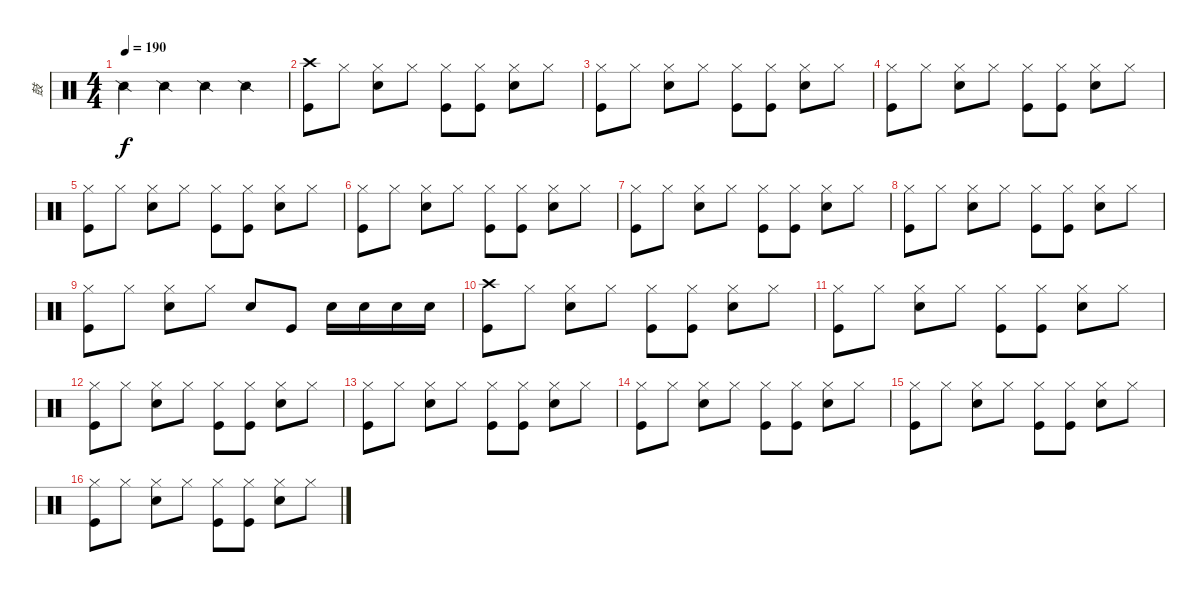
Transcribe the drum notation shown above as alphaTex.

\track ("鼓" "鼓") {instrument percussion}
\staff {score}
\articulation defaults
\ts (4 4)
\tempo 190
\clef neutral
\ks c "Snare (side stick) 2".4{dy f} "Snare (side stick) 2".4 "Snare (side stick) 2".4 "Snare (side stick) 2".4
|
("Crash high (hit)" "Kick (hit)").8 "Hi-Hat (closed)".8 ("Hi-Hat (closed)" "Snare (hit) 2").8 "Hi-Hat (closed)".8 ("Hi-Hat (closed)" "Kick (hit)").8 ("Hi-Hat (closed)" "Kick (hit)").8 ("Hi-Hat (closed)" "Snare (hit) 2").8 "Hi-Hat (closed)".8 |
("Hi-Hat (closed)" "Kick (hit)").8 "Hi-Hat (closed)".8 ("Hi-Hat (closed)" "Snare (hit) 2").8 "Hi-Hat (closed)".8 ("Hi-Hat (closed)" "Kick (hit)").8 ("Hi-Hat (closed)" "Kick (hit)").8 ("Hi-Hat (closed)" "Snare (hit) 2").8 "Hi-Hat (closed)".8 |
("Hi-Hat (closed)" "Kick (hit)").8 "Hi-Hat (closed)".8 ("Hi-Hat (closed)" "Snare (hit) 2").8 "Hi-Hat (closed)".8 ("Hi-Hat (closed)" "Kick (hit)").8 ("Hi-Hat (closed)" "Kick (hit)").8 ("Hi-Hat (closed)" "Snare (hit) 2").8 "Hi-Hat (closed)".8 |
("Hi-Hat (closed)" "Kick (hit)").8 "Hi-Hat (closed)".8 ("Hi-Hat (closed)" "Snare (hit) 2").8 "Hi-Hat (closed)".8 ("Hi-Hat (closed)" "Kick (hit)").8 ("Hi-Hat (closed)" "Kick (hit)").8 ("Hi-Hat (closed)" "Snare (hit) 2").8 "Hi-Hat (closed)".8 |
("Hi-Hat (closed)" "Kick (hit)").8 "Hi-Hat (closed)".8 ("Hi-Hat (closed)" "Snare (hit) 2").8 "Hi-Hat (closed)".8 ("Hi-Hat (closed)" "Kick (hit)").8 ("Hi-Hat (closed)" "Kick (hit)").8 ("Hi-Hat (closed)" "Snare (hit) 2").8 "Hi-Hat (closed)".8 |
("Hi-Hat (closed)" "Kick (hit)").8 "Hi-Hat (closed)".8 ("Hi-Hat (closed)" "Snare (hit) 2").8 "Hi-Hat (closed)".8 ("Hi-Hat (closed)" "Kick (hit)").8 ("Hi-Hat (closed)" "Kick (hit)").8 ("Hi-Hat (closed)" "Snare (hit) 2").8 "Hi-Hat (closed)".8 |
("Hi-Hat (closed)" "Kick (hit)").8 "Hi-Hat (closed)".8 ("Hi-Hat (closed)" "Snare (hit) 2").8 "Hi-Hat (closed)".8 ("Hi-Hat (closed)" "Kick (hit)").8 ("Hi-Hat (closed)" "Kick (hit)").8 ("Hi-Hat (closed)" "Snare (hit) 2").8 "Hi-Hat (closed)".8 |
("Hi-Hat (closed)" "Kick (hit)").8 "Hi-Hat (closed)".8 ("Hi-Hat (closed)" "Snare (hit) 2").8 "Hi-Hat (closed)".8 "Snare (hit) 2".8 "Kick (hit)".8 "Snare (hit) 2".16 "Snare (hit) 2".16 "Snare (hit) 2".16 "Snare (hit) 2".16 |
("Crash high (hit)" "Kick (hit)").8 "Hi-Hat (closed)".8 ("Hi-Hat (closed)" "Snare (hit) 2").8 "Hi-Hat (closed)".8 ("Hi-Hat (closed)" "Kick (hit)").8 ("Hi-Hat (closed)" "Kick (hit)").8 ("Hi-Hat (closed)" "Snare (hit) 2").8 "Hi-Hat (closed)".8 |
("Hi-Hat (closed)" "Kick (hit)").8 "Hi-Hat (closed)".8 ("Hi-Hat (closed)" "Snare (hit) 2").8 "Hi-Hat (closed)".8 ("Hi-Hat (closed)" "Kick (hit)").8 ("Hi-Hat (closed)" "Kick (hit)").8 ("Hi-Hat (closed)" "Snare (hit) 2").8 "Hi-Hat (closed)".8 |
("Hi-Hat (closed)" "Kick (hit)").8 "Hi-Hat (closed)".8 ("Hi-Hat (closed)" "Snare (hit) 2").8 "Hi-Hat (closed)".8 ("Hi-Hat (closed)" "Kick (hit)").8 ("Hi-Hat (closed)" "Kick (hit)").8 ("Hi-Hat (closed)" "Snare (hit) 2").8 "Hi-Hat (closed)".8 |
("Hi-Hat (closed)" "Kick (hit)").8 "Hi-Hat (closed)".8 ("Hi-Hat (closed)" "Snare (hit) 2").8 "Hi-Hat (closed)".8 ("Hi-Hat (closed)" "Kick (hit)").8 ("Hi-Hat (closed)" "Kick (hit)").8 ("Hi-Hat (closed)" "Snare (hit) 2").8 "Hi-Hat (closed)".8 |
("Hi-Hat (closed)" "Kick (hit)").8 "Hi-Hat (closed)".8 ("Hi-Hat (closed)" "Snare (hit) 2").8 "Hi-Hat (closed)".8 ("Hi-Hat (closed)" "Kick (hit)").8 ("Hi-Hat (closed)" "Kick (hit)").8 ("Hi-Hat (closed)" "Snare (hit) 2").8 "Hi-Hat (closed)".8 |
("Hi-Hat (closed)" "Kick (hit)").8 "Hi-Hat (closed)".8 ("Hi-Hat (closed)" "Snare (hit) 2").8 "Hi-Hat (closed)".8 ("Hi-Hat (closed)" "Kick (hit)").8 ("Hi-Hat (closed)" "Kick (hit)").8 ("Hi-Hat (closed)" "Snare (hit) 2").8 "Hi-Hat (closed)".8 |
("Hi-Hat (closed)" "Kick (hit)").8 "Hi-Hat (closed)".8 ("Hi-Hat (closed)" "Snare (hit) 2").8 "Hi-Hat (closed)".8 ("Hi-Hat (closed)" "Kick (hit)").8 ("Hi-Hat (closed)" "Kick (hit)").8 ("Hi-Hat (closed)" "Snare (hit) 2").8 "Hi-Hat (closed)".8
